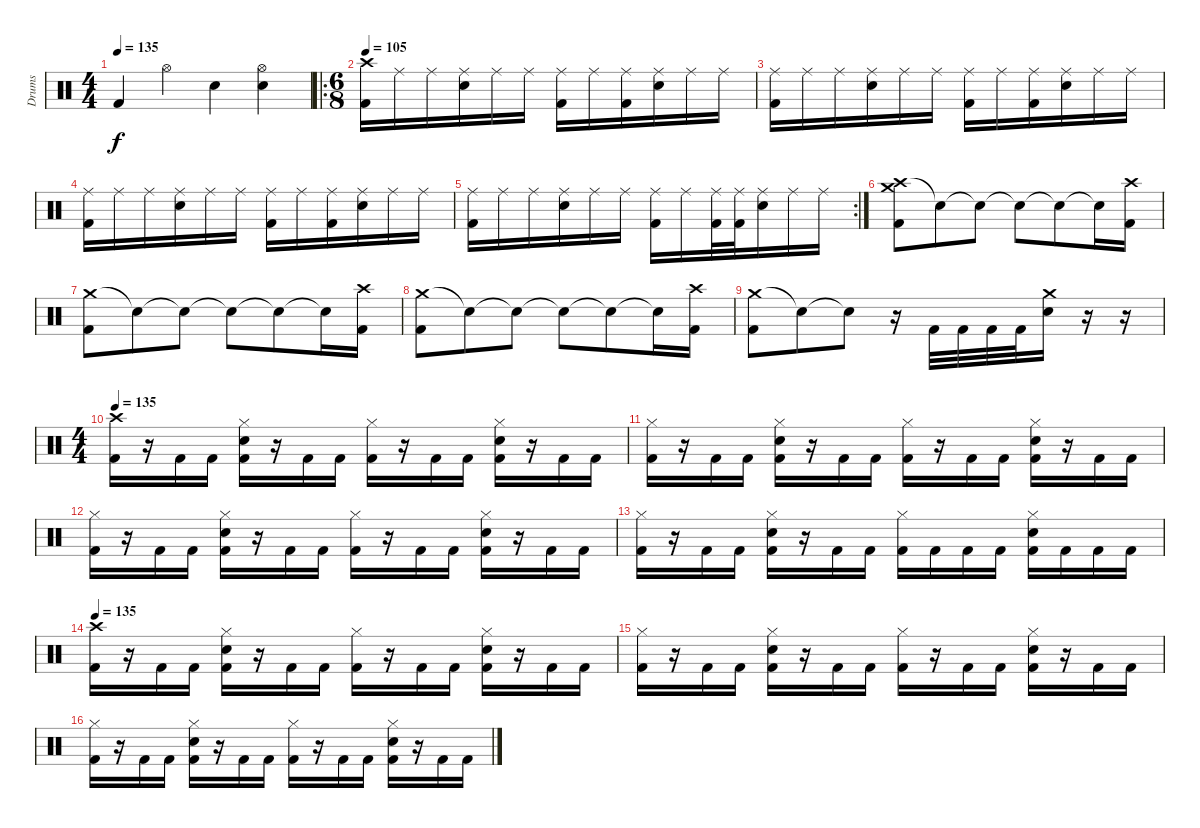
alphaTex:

\track ("Drums" "Drums") {instrument percussion}
\staff {score}
\articulation defaults
\ts (4 4)
\tempo 135
\clef neutral
\ks c "Kick (hit) 2".4{dy f} "Hi-Hat (open)".4 "Snare (hit) 2".4
("Hi-Hat (open)" "Snare (hit) 2").4 |
\ro
\ts (6 8)
\tempo 105
("Crash high (hit)" "Kick (hit) 2").16 "Ride (middle)".16 "Ride (middle)".16 ("Ride (middle)" "Snare (hit) 2").16 "Ride (middle)".16 "Ride (middle)".16 ("Ride (middle)" "Kick (hit) 2").16 "Ride (middle)".16 ("Ride (middle)" "Kick (hit) 2").16 ("Ride (middle)" "Snare (hit) 2").16 "Ride (middle)".16 "Ride (middle)".16 |
("Ride (middle)" "Kick (hit) 2").16 "Ride (middle)".16 "Ride (middle)".16 ("Ride (middle)" "Snare (hit) 2").16 "Ride (middle)".16 "Ride (middle)".16 ("Ride (middle)" "Kick (hit) 2").16 "Ride (middle)".16 ("Ride (middle)" "Kick (hit) 2").16 ("Ride (middle)" "Snare (hit) 2").16 "Ride (middle)".16 "Ride (middle)".16 |
("Ride (middle)" "Kick (hit) 2").16 "Ride (middle)".16 "Ride (middle)".16 ("Ride (middle)" "Snare (hit) 2").16 "Ride (middle)".16 "Ride (middle)".16 ("Ride (middle)" "Kick (hit) 2").16 "Ride (middle)".16 ("Ride (middle)" "Kick (hit) 2").16 ("Ride (middle)" "Snare (hit) 2").16 "Ride (middle)".16 "Ride (middle)".16 |
\rc 2
("Ride (middle)" "Kick (hit) 2").16 "Ride (middle)".16 "Ride (middle)".16 ("Ride (middle)" "Snare (hit) 2").16 "Ride (middle)".16 "Ride (middle)".16 ("Ride (middle)" "Kick (hit) 2").16 "Ride (middle)".16 ("Ride (middle)" "Kick (hit) 2").32 ("Ride (middle)" "Kick (hit) 2").32 ("Ride (middle)" "Snare (hit) 2").16 "Ride (middle)".16 "Ride (middle)".16 |
("Crash high (hit)" "Crash medium (hit)" "Kick (hit) 2").8 "Snare (hit)"{t}.8 "Snare (hit)"{t}.8 "Snare (hit)"{t}.8 "Snare (hit)"{t}.8 "Snare (hit)"{t}.16 ("Crash high (hit)" "Kick (hit) 2").16 |
("Crash medium (hit)" "Kick (hit) 2").8 "Snare (hit)"{t}.8 "Snare (hit)"{t}.8 "Snare (hit)"{t}.8 "Snare (hit)"{t}.8 "Snare (hit)"{t}.16 ("Crash high (hit)" "Kick (hit) 2").16 |
("Crash medium (hit)" "Kick (hit) 2").8 "Snare (hit)"{t}.8 "Snare (hit)"{t}.8 "Snare (hit)"{t}.8 "Snare (hit)"{t}.8 "Snare (hit)"{t}.16 ("Crash high (hit)" "Kick (hit) 2").16 |
("Crash medium (hit)" "Kick (hit) 2").8 "Snare (hit)"{t}.8 "Snare (hit)"{t}.8 r.16 "Kick (hit) 2".32 "Kick (hit) 2".32 "Kick (hit) 2".32 "Kick (hit) 2".32 ("Crash medium (hit)" "Snare (hit) 2").16 r.16 r.16 |
\ts (4 4)
\tempo 135
("Crash high (hit)" "Kick (hit) 2").16 r.16 "Kick (hit) 2".16 "Kick (hit) 2".16 ("Hi-Hat (closed)" "Snare (hit) 2" "Kick (hit) 2").16 r.16 "Kick (hit) 2".16 "Kick (hit) 2".16 ("Hi-Hat (closed)" "Kick (hit) 2").16 r.16 "Kick (hit) 2".16 "Kick (hit) 2".16 ("Hi-Hat (closed)" "Snare (hit) 2" "Kick (hit) 2").16 r.16 "Kick (hit) 2".16 "Kick (hit) 2".16 |
("Hi-Hat (closed)" "Kick (hit) 2").16 r.16 "Kick (hit) 2".16 "Kick (hit) 2".16 ("Hi-Hat (closed)" "Snare (hit) 2" "Kick (hit) 2").16 r.16 "Kick (hit) 2".16 "Kick (hit) 2".16 ("Hi-Hat (closed)" "Kick (hit) 2").16 r.16 "Kick (hit) 2".16 "Kick (hit) 2".16 ("Hi-Hat (closed)" "Snare (hit) 2" "Kick (hit) 2").16 r.16 "Kick (hit) 2".16 "Kick (hit) 2".16 |
("Hi-Hat (closed)" "Kick (hit) 2").16 r.16 "Kick (hit) 2".16 "Kick (hit) 2".16 ("Hi-Hat (closed)" "Snare (hit) 2" "Kick (hit) 2").16 r.16 "Kick (hit) 2".16 "Kick (hit) 2".16 ("Hi-Hat (closed)" "Kick (hit) 2").16 r.16 "Kick (hit) 2".16 "Kick (hit) 2".16 ("Hi-Hat (closed)" "Snare (hit) 2" "Kick (hit) 2").16 r.16 "Kick (hit) 2".16 "Kick (hit) 2".16 |
("Hi-Hat (closed)" "Kick (hit) 2").16 r.16 "Kick (hit) 2".16 "Kick (hit) 2".16 ("Hi-Hat (closed)" "Snare (hit) 2" "Kick (hit) 2").16 r.16 "Kick (hit) 2".16 "Kick (hit) 2".16 ("Hi-Hat (closed)" "Kick (hit) 2").16 "Kick (hit) 2".16 "Kick (hit) 2".16 "Kick (hit) 2".16 ("Hi-Hat (closed)" "Snare (hit) 2" "Kick (hit) 2").16 "Kick (hit) 2".16 "Kick (hit) 2".16 "Kick (hit) 2".16 |
\tempo 135
("Crash high (hit)" "Kick (hit) 2").16 r.16 "Kick (hit) 2".16 "Kick (hit) 2".16 ("Hi-Hat (closed)" "Snare (hit) 2" "Kick (hit) 2").16 r.16 "Kick (hit) 2".16 "Kick (hit) 2".16 ("Hi-Hat (closed)" "Kick (hit) 2").16 r.16 "Kick (hit) 2".16 "Kick (hit) 2".16 ("Hi-Hat (closed)" "Snare (hit) 2" "Kick (hit) 2").16 r.16 "Kick (hit) 2".16 "Kick (hit) 2".16 |
("Hi-Hat (closed)" "Kick (hit) 2").16 r.16 "Kick (hit) 2".16 "Kick (hit) 2".16 ("Hi-Hat (closed)" "Snare (hit) 2" "Kick (hit) 2").16 r.16 "Kick (hit) 2".16 "Kick (hit) 2".16 ("Hi-Hat (closed)" "Kick (hit) 2").16 r.16 "Kick (hit) 2".16 "Kick (hit) 2".16 ("Hi-Hat (closed)" "Snare (hit) 2" "Kick (hit) 2").16 r.16 "Kick (hit) 2".16 "Kick (hit) 2".16 |
("Hi-Hat (closed)" "Kick (hit) 2").16 r.16 "Kick (hit) 2".16 "Kick (hit) 2".16 ("Hi-Hat (closed)" "Snare (hit) 2" "Kick (hit) 2").16 r.16 "Kick (hit) 2".16 "Kick (hit) 2".16 ("Hi-Hat (closed)" "Kick (hit) 2").16 r.16 "Kick (hit) 2".16 "Kick (hit) 2".16 ("Hi-Hat (closed)" "Snare (hit) 2" "Kick (hit) 2").16 r.16 "Kick (hit) 2".16 "Kick (hit) 2".16
